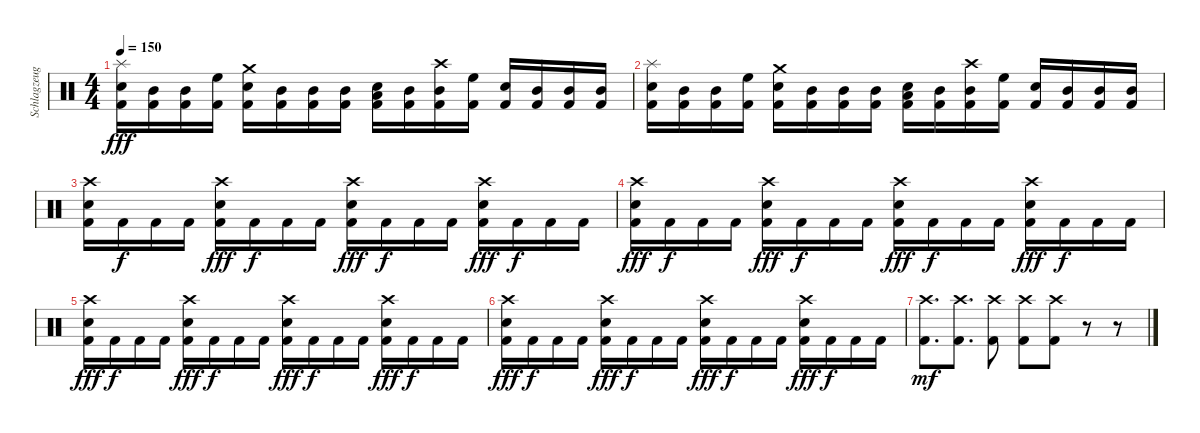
\track ("Schlagzeug" "Schlagzeug") {instrument percussion}
\staff {score}
\articulation defaults
\ts (4 4)
\tempo 150
\clef neutral
\ks c
("Snare (hit) 2" "Splash (hit)" "Kick (hit) 2").16{dy fff} ("Mid Tom (hit)" "Kick (hit) 2").16 ("Mid Tom (hit)" "Kick (hit) 2").16 ("High Floor Tom (hit)" "Kick (hit) 2").16 ("Snare (hit) 2" "Crash medium (hit)" "Kick (hit) 2").16 ("Mid Tom (hit)" "Kick (hit) 2").16 ("Mid Tom (hit)" "Kick (hit) 2").16 ("Mid Tom (hit)" "Kick (hit) 2").16 ("Snare (hit) 2" "Low Tom (hit)" "Kick (hit) 2").16 ("Mid Tom (hit)" "Kick (hit) 2").16 ("Mid Tom (hit)" "Crash high (hit)" "Kick (hit) 2").16 ("High Floor Tom (hit)" "Kick (hit) 2").16 ("Snare (hit) 2" "Kick (hit) 2").16 ("Mid Tom (hit)" "Kick (hit) 2").16 ("Mid Tom (hit)" "Kick (hit) 2").16 ("Mid Tom (hit)" "Kick (hit) 2").16 |
("Snare (hit) 2" "Splash (hit)" "Kick (hit) 2").16 ("Mid Tom (hit)" "Kick (hit) 2").16 ("Mid Tom (hit)" "Kick (hit) 2").16 ("High Floor Tom (hit)" "Kick (hit) 2").16 ("Snare (hit) 2" "Crash medium (hit)" "Kick (hit) 2").16 ("Mid Tom (hit)" "Kick (hit) 2").16 ("Mid Tom (hit)" "Kick (hit) 2").16 ("Mid Tom (hit)" "Kick (hit) 2").16 ("Snare (hit) 2" "Low Tom (hit)" "Kick (hit) 2").16 ("Mid Tom (hit)" "Kick (hit) 2").16 ("Mid Tom (hit)" "Crash high (hit)" "Kick (hit) 2").16 ("High Floor Tom (hit)" "Kick (hit) 2").16 ("Snare (hit) 2" "Kick (hit) 2").16 ("Mid Tom (hit)" "Kick (hit) 2").16 ("Mid Tom (hit)" "Kick (hit) 2").16 ("Mid Tom (hit)" "Kick (hit) 2").16 |
("Crash high (hit)" "Snare (hit) 2" "Kick (hit) 2").16 "Kick (hit) 2".16{dy f} "Kick (hit) 2".16 "Kick (hit) 2".16 ("Crash high (hit)" "Snare (hit) 2" "Kick (hit) 2").16{dy fff} "Kick (hit) 2".16{dy f} "Kick (hit) 2".16 "Kick (hit) 2".16 ("Crash high (hit)" "Snare (hit) 2" "Kick (hit) 2").16{dy fff} "Kick (hit) 2".16{dy f} "Kick (hit) 2".16 "Kick (hit) 2".16 ("Crash high (hit)" "Snare (hit) 2" "Kick (hit) 2").16{dy fff} "Kick (hit) 2".16{dy f} "Kick (hit) 2".16 "Kick (hit) 2".16 |
("Crash high (hit)" "Snare (hit) 2" "Kick (hit) 2").16{dy fff} "Kick (hit) 2".16{dy f} "Kick (hit) 2".16 "Kick (hit) 2".16 ("Crash high (hit)" "Snare (hit) 2" "Kick (hit) 2").16{dy fff} "Kick (hit) 2".16{dy f} "Kick (hit) 2".16 "Kick (hit) 2".16 ("Crash high (hit)" "Snare (hit) 2" "Kick (hit) 2").16{dy fff} "Kick (hit) 2".16{dy f} "Kick (hit) 2".16 "Kick (hit) 2".16 ("Crash high (hit)" "Snare (hit) 2" "Kick (hit) 2").16{dy fff} "Kick (hit) 2".16{dy f} "Kick (hit) 2".16 "Kick (hit) 2".16 |
("Crash high (hit)" "Snare (hit) 2" "Kick (hit) 2").16{dy fff} "Kick (hit) 2".16{dy f} "Kick (hit) 2".16 "Kick (hit) 2".16 ("Crash high (hit)" "Snare (hit) 2" "Kick (hit) 2").16{dy fff} "Kick (hit) 2".16{dy f} "Kick (hit) 2".16 "Kick (hit) 2".16 ("Crash high (hit)" "Snare (hit) 2" "Kick (hit) 2").16{dy fff} "Kick (hit) 2".16{dy f} "Kick (hit) 2".16 "Kick (hit) 2".16 ("Crash high (hit)" "Snare (hit) 2" "Kick (hit) 2").16{dy fff} "Kick (hit) 2".16{dy f} "Kick (hit) 2".16 "Kick (hit) 2".16 |
("Crash high (hit)" "Snare (hit) 2" "Kick (hit) 2").16{dy fff} "Kick (hit) 2".16{dy f} "Kick (hit) 2".16 "Kick (hit) 2".16 ("Crash high (hit)" "Snare (hit) 2" "Kick (hit) 2").16{dy fff} "Kick (hit) 2".16{dy f} "Kick (hit) 2".16 "Kick (hit) 2".16 ("Crash high (hit)" "Snare (hit) 2" "Kick (hit) 2").16{dy fff} "Kick (hit) 2".16{dy f} "Kick (hit) 2".16 "Kick (hit) 2".16 ("Crash high (hit)" "Snare (hit) 2" "Kick (hit) 2").16{dy fff} "Kick (hit) 2".16{dy f} "Kick (hit) 2".16 "Kick (hit) 2".16 |
("Crash high (hit)" "Kick (hit) 2").8{d dy mf} ("Crash high (hit)" "Kick (hit) 2").8{d} ("Crash high (hit)" "Kick (hit) 2").8 ("Crash high (hit)" "Kick (hit) 2").8 ("Crash high (hit)" "Kick (hit) 2").8 r.8 r.8
